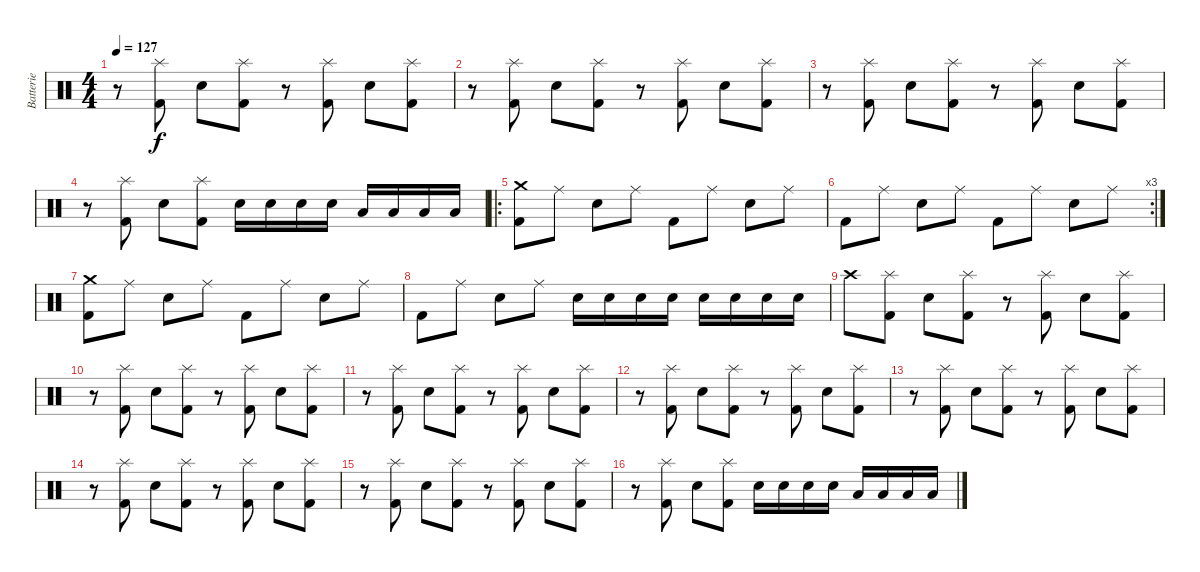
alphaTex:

\track ("Batterie" "Batterie") {instrument percussion}
\staff {score}
\articulation defaults
\ts (4 4)
\tempo 127
\clef neutral
\ks c
r.8{dy f} ("Splash (hit)" "Kick (hit) 2").8 "Snare (hit) 2".8 ("Splash (hit)" "Kick (hit) 2").8 r.8 ("Splash (hit)" "Kick (hit) 2").8 "Snare (hit) 2".8 ("Splash (hit)" "Kick (hit) 2").8 |
r.8 ("Splash (hit)" "Kick (hit) 2").8 "Snare (hit) 2".8 ("Splash (hit)" "Kick (hit) 2").8 r.8 ("Splash (hit)" "Kick (hit) 2").8 "Snare (hit) 2".8 ("Splash (hit)" "Kick (hit) 2").8 |
r.8 ("Splash (hit)" "Kick (hit) 2").8 "Snare (hit) 2".8 ("Splash (hit)" "Kick (hit) 2").8 r.8 ("Splash (hit)" "Kick (hit) 2").8 "Snare (hit) 2".8 ("Splash (hit)" "Kick (hit) 2").8 |
r.8 ("Splash (hit)" "Kick (hit) 2").8 "Snare (hit) 2".8 ("Splash (hit)" "Kick (hit) 2").8 "Snare (hit) 2".16 "Snare (hit) 2".16 "Snare (hit) 2".16 "Snare (hit) 2".16 "Low Tom (hit)".16 "Low Tom (hit)".16 "Low Tom (hit)".16 "Low Tom (hit)".16 |
\ro
("Crash medium (hit)" "Kick (hit) 2").8 "Ride (middle)".8 "Snare (hit) 2".8 "Ride (middle)".8 "Kick (hit) 2".8 "Ride (middle)".8 "Snare (hit) 2".8 "Ride (middle)".8 |
\rc 3 "Kick (hit) 2".8 "Ride (middle)".8 "Snare (hit) 2".8 "Ride (middle)".8 "Kick (hit) 2".8 "Ride (middle)".8 "Snare (hit) 2".8 "Ride (middle)".8
|
("Crash medium (hit)" "Kick (hit) 2").8 "Ride (middle)".8 "Snare (hit) 2".8 "Ride (middle)".8 "Kick (hit) 2".8 "Ride (middle)".8 "Snare (hit) 2".8 "Ride (middle)".8 |
"Kick (hit) 2".8 "Ride (middle)".8 "Snare (hit) 2".8 "Ride (middle)".8 "Snare (hit) 2".16 "Snare (hit) 2".16 "Snare (hit) 2".16 "Snare (hit) 2".16 "Snare (hit) 2".16 "Snare (hit) 2".16 "Snare (hit) 2".16 "Snare (hit) 2".16 |
"Crash high (hit)".8 ("Splash (hit)" "Kick (hit) 2").8 "Snare (hit) 2".8 ("Splash (hit)" "Kick (hit) 2").8 r.8 ("Splash (hit)" "Kick (hit) 2").8 "Snare (hit) 2".8 ("Splash (hit)" "Kick (hit) 2").8 |
r.8 ("Splash (hit)" "Kick (hit) 2").8 "Snare (hit) 2".8 ("Splash (hit)" "Kick (hit) 2").8 r.8 ("Splash (hit)" "Kick (hit) 2").8 "Snare (hit) 2".8 ("Splash (hit)" "Kick (hit) 2").8 |
r.8 ("Splash (hit)" "Kick (hit) 2").8 "Snare (hit) 2".8 ("Splash (hit)" "Kick (hit) 2").8 r.8 ("Splash (hit)" "Kick (hit) 2").8 "Snare (hit) 2".8 ("Splash (hit)" "Kick (hit) 2").8 |
r.8 ("Splash (hit)" "Kick (hit) 2").8 "Snare (hit) 2".8 ("Splash (hit)" "Kick (hit) 2").8 r.8 ("Splash (hit)" "Kick (hit) 2").8 "Snare (hit) 2".8 ("Splash (hit)" "Kick (hit) 2").8 |
r.8 ("Splash (hit)" "Kick (hit) 2").8 "Snare (hit) 2".8 ("Splash (hit)" "Kick (hit) 2").8 r.8 ("Splash (hit)" "Kick (hit) 2").8 "Snare (hit) 2".8 ("Splash (hit)" "Kick (hit) 2").8 |
r.8 ("Splash (hit)" "Kick (hit) 2").8 "Snare (hit) 2".8 ("Splash (hit)" "Kick (hit) 2").8 r.8 ("Splash (hit)" "Kick (hit) 2").8 "Snare (hit) 2".8 ("Splash (hit)" "Kick (hit) 2").8 |
r.8 ("Splash (hit)" "Kick (hit) 2").8 "Snare (hit) 2".8 ("Splash (hit)" "Kick (hit) 2").8 r.8 ("Splash (hit)" "Kick (hit) 2").8 "Snare (hit) 2".8 ("Splash (hit)" "Kick (hit) 2").8 |
r.8 ("Splash (hit)" "Kick (hit) 2").8 "Snare (hit) 2".8 ("Splash (hit)" "Kick (hit) 2").8 "Snare (hit) 2".16 "Snare (hit) 2".16 "Snare (hit) 2".16 "Snare (hit) 2".16 "Low Tom (hit)".16 "Low Tom (hit)".16 "Low Tom (hit)".16 "Low Tom (hit)".16
